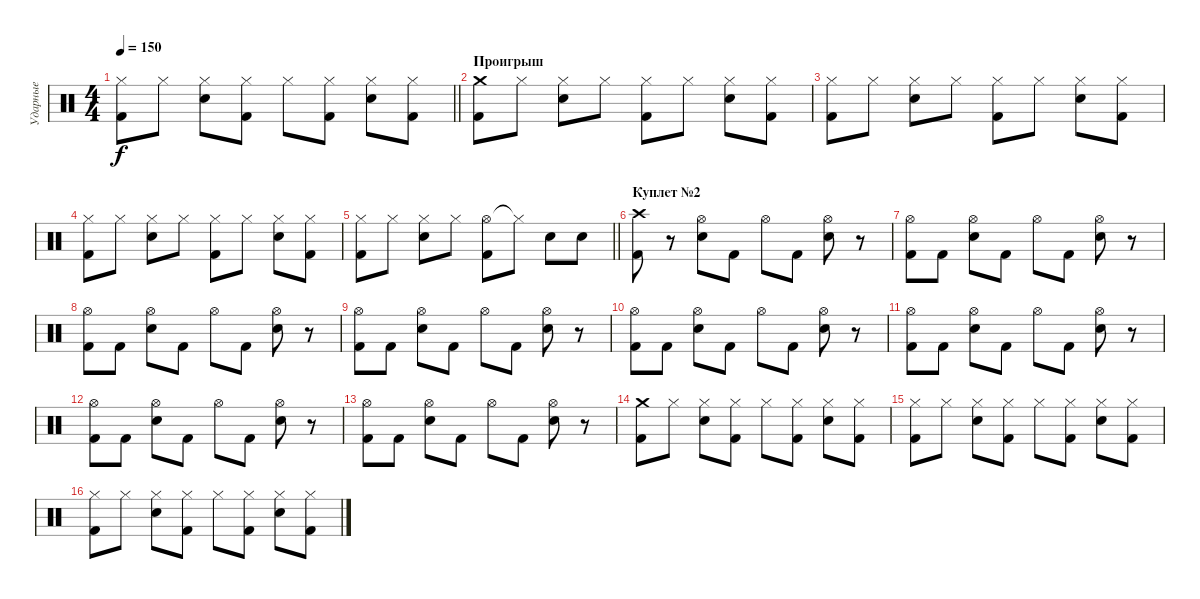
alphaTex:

\track ("Ударные" "Ударные") {instrument percussion}
\staff {score}
\articulation defaults
\ts (4 4)
\tempo 150
\clef neutral
\barLineRight lightlight
\ks c
("Hi-Hat (closed)" "Kick (hit) 2").8{dy f} "Hi-Hat (closed)".8 ("Hi-Hat (closed)" "Electric Snare (hit)").8 ("Hi-Hat (closed)" "Kick (hit) 2").8 "Hi-Hat (closed)".8 ("Hi-Hat (closed)" "Kick (hit) 2").8 ("Hi-Hat (closed)" "Electric Snare (hit)").8 ("Hi-Hat (closed)" "Kick (hit) 2").8 |
\section ("" "Проигрыш")
("Crash medium (hit)" "Kick (hit) 2").8 "Hi-Hat (closed)".8 ("Hi-Hat (closed)" "Electric Snare (hit)").8 "Hi-Hat (closed)".8 ("Hi-Hat (closed)" "Kick (hit) 2").8 "Hi-Hat (closed)".8 ("Hi-Hat (closed)" "Electric Snare (hit)").8 ("Hi-Hat (closed)" "Kick (hit) 2").8 |
("Hi-Hat (closed)" "Kick (hit) 2").8 "Hi-Hat (closed)".8 ("Hi-Hat (closed)" "Electric Snare (hit)").8 "Hi-Hat (closed)".8 ("Hi-Hat (closed)" "Kick (hit) 2").8 "Hi-Hat (closed)".8 ("Hi-Hat (closed)" "Electric Snare (hit)").8 ("Hi-Hat (closed)" "Kick (hit) 2").8 |
("Hi-Hat (closed)" "Kick (hit) 2").8 "Hi-Hat (closed)".8 ("Hi-Hat (closed)" "Electric Snare (hit)").8 "Hi-Hat (closed)".8 ("Hi-Hat (closed)" "Kick (hit) 2").8 "Hi-Hat (closed)".8 ("Hi-Hat (closed)" "Electric Snare (hit)").8 ("Hi-Hat (closed)" "Kick (hit) 2").8 |
\barLineRight lightlight
("Hi-Hat (closed)" "Kick (hit) 2").8 "Hi-Hat (closed)".8 ("Hi-Hat (closed)" "Electric Snare (hit)").8 "Hi-Hat (closed)".8 ("Hi-Hat (open)" "Kick (hit) 2").8 "Hi-Hat (closed)"{t}.8 "Electric Snare (hit)".8 "Electric Snare (hit)".8 |
\section ("" "Куплет №2")
("Crash high (hit)" "Kick (hit) 2").8 r.8 ("Hi-Hat (open)" "Electric Snare (hit)").8 "Kick (hit) 2".8 "Hi-Hat (open)".8 "Kick (hit) 2".8 ("Hi-Hat (open)" "Electric Snare (hit)").8 r.8 |
("Hi-Hat (open)" "Kick (hit) 2").8 "Kick (hit) 2".8 ("Hi-Hat (open)" "Electric Snare (hit)").8 "Kick (hit) 2".8 "Hi-Hat (open)".8 "Kick (hit) 2".8 ("Hi-Hat (open)" "Electric Snare (hit)").8 r.8 |
("Hi-Hat (open)" "Kick (hit) 2").8 "Kick (hit) 2".8 ("Hi-Hat (open)" "Electric Snare (hit)").8 "Kick (hit) 2".8 "Hi-Hat (open)".8 "Kick (hit) 2".8 ("Hi-Hat (open)" "Electric Snare (hit)").8 r.8 |
("Hi-Hat (open)" "Kick (hit) 2").8 "Kick (hit) 2".8 ("Hi-Hat (open)" "Electric Snare (hit)").8 "Kick (hit) 2".8 "Hi-Hat (open)".8 "Kick (hit) 2".8 ("Hi-Hat (open)" "Electric Snare (hit)").8 r.8 |
("Hi-Hat (open)" "Kick (hit) 2").8 "Kick (hit) 2".8 ("Hi-Hat (open)" "Electric Snare (hit)").8 "Kick (hit) 2".8 "Hi-Hat (open)".8 "Kick (hit) 2".8 ("Hi-Hat (open)" "Electric Snare (hit)").8 r.8 |
("Hi-Hat (open)" "Kick (hit) 2").8 "Kick (hit) 2".8 ("Hi-Hat (open)" "Electric Snare (hit)").8 "Kick (hit) 2".8 "Hi-Hat (open)".8 "Kick (hit) 2".8 ("Hi-Hat (open)" "Electric Snare (hit)").8 r.8 |
("Hi-Hat (open)" "Kick (hit) 2").8 "Kick (hit) 2".8 ("Hi-Hat (open)" "Electric Snare (hit)").8 "Kick (hit) 2".8 "Hi-Hat (open)".8 "Kick (hit) 2".8 ("Hi-Hat (open)" "Electric Snare (hit)").8 r.8 |
("Hi-Hat (open)" "Kick (hit) 2").8 "Kick (hit) 2".8 ("Hi-Hat (open)" "Electric Snare (hit)").8 "Kick (hit) 2".8 "Hi-Hat (open)".8 "Kick (hit) 2".8 ("Hi-Hat (open)" "Electric Snare (hit)").8 r.8 |
("Crash medium (hit)" "Kick (hit) 2").8 "Hi-Hat (closed)".8 ("Hi-Hat (closed)" "Electric Snare (hit)").8 ("Hi-Hat (closed)" "Kick (hit) 2").8 "Hi-Hat (closed)".8 ("Hi-Hat (closed)" "Kick (hit) 2").8 ("Hi-Hat (closed)" "Electric Snare (hit)").8 ("Hi-Hat (closed)" "Kick (hit) 2").8 |
("Hi-Hat (closed)" "Kick (hit) 2").8 "Hi-Hat (closed)".8 ("Hi-Hat (closed)" "Electric Snare (hit)").8 ("Hi-Hat (closed)" "Kick (hit) 2").8 "Hi-Hat (closed)".8 ("Hi-Hat (closed)" "Kick (hit) 2").8 ("Hi-Hat (closed)" "Electric Snare (hit)").8 ("Hi-Hat (closed)" "Kick (hit) 2").8 |
("Hi-Hat (closed)" "Kick (hit) 2").8 "Hi-Hat (closed)".8 ("Hi-Hat (closed)" "Electric Snare (hit)").8 ("Hi-Hat (closed)" "Kick (hit) 2").8 "Hi-Hat (closed)".8 ("Hi-Hat (closed)" "Kick (hit) 2").8 ("Hi-Hat (closed)" "Electric Snare (hit)").8 ("Hi-Hat (closed)" "Kick (hit) 2").8
